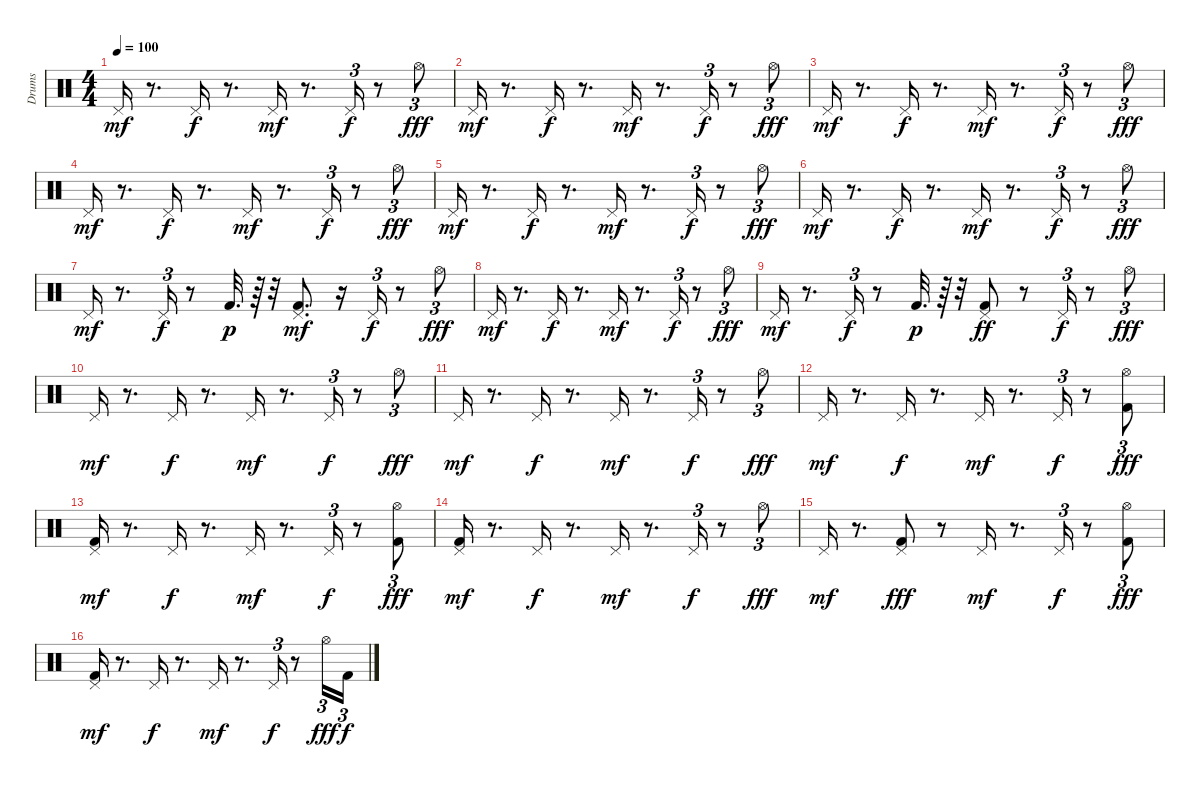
\track ("Drums" "Drums") {instrument percussion}
\staff {score}
\articulation defaults
\ts (4 4)
\tempo 100
\clef neutral
\ks c "Pedal Hi-Hat (hit)".16{dy mf}
r.8{d} "Pedal Hi-Hat (hit)".16{dy f} r.8{d} "Pedal Hi-Hat (hit)".16{dy mf} r.8{d} "Pedal Hi-Hat (hit)".16{tu (3 2) dy f} r.8 "Hi-Hat (open)".8{tu (3 2) dy fff} |
"Pedal Hi-Hat (hit)".16{dy mf} r.8{d} "Pedal Hi-Hat (hit)".16{dy f} r.8{d} "Pedal Hi-Hat (hit)".16{dy mf} r.8{d} "Pedal Hi-Hat (hit)".16{tu (3 2) dy f} r.8 "Hi-Hat (open)".8{tu (3 2) dy fff} |
"Pedal Hi-Hat (hit)".16{dy mf} r.8{d} "Pedal Hi-Hat (hit)".16{dy f} r.8{d} "Pedal Hi-Hat (hit)".16{dy mf} r.8{d} "Pedal Hi-Hat (hit)".16{tu (3 2) dy f} r.8 "Hi-Hat (open)".8{tu (3 2) dy fff} |
"Pedal Hi-Hat (hit)".16{dy mf} r.8{d} "Pedal Hi-Hat (hit)".16{dy f} r.8{d} "Pedal Hi-Hat (hit)".16{dy mf} r.8{d} "Pedal Hi-Hat (hit)".16{tu (3 2) dy f} r.8 "Hi-Hat (open)".8{tu (3 2) dy fff} |
"Pedal Hi-Hat (hit)".16{dy mf} r.8{d} "Pedal Hi-Hat (hit)".16{dy f} r.8{d} "Pedal Hi-Hat (hit)".16{dy mf} r.8{d} "Pedal Hi-Hat (hit)".16{tu (3 2) dy f} r.8 "Hi-Hat (open)".8{tu (3 2) dy fff} |
"Pedal Hi-Hat (hit)".16{dy mf} r.8{d} "Pedal Hi-Hat (hit)".16{dy f} r.8{d} "Pedal Hi-Hat (hit)".16{dy mf} r.8{d} "Pedal Hi-Hat (hit)".16{tu (3 2) dy f} r.8 "Hi-Hat (open)".8{tu (3 2) dy fff} |
"Pedal Hi-Hat (hit)".16{dy mf} r.8{d} "Pedal Hi-Hat (hit)".16{tu (3 2) dy f} r.8 "Kick (hit) 2".32{d dy p} r.64 r.32 ("Pedal Hi-Hat (hit)" "Kick (hit) 2").8{d dy mf} r.16 "Pedal Hi-Hat (hit)".16{tu (3 2) dy f} r.8 "Hi-Hat (open)".8{tu (3 2) dy fff} |
"Pedal Hi-Hat (hit)".16{dy mf} r.8{d} "Pedal Hi-Hat (hit)".16{dy f} r.8{d} "Pedal Hi-Hat (hit)".16{dy mf} r.8{d} "Pedal Hi-Hat (hit)".16{tu (3 2) dy f} r.8 "Hi-Hat (open)".8{tu (3 2) dy fff} |
"Pedal Hi-Hat (hit)".16{dy mf} r.8{d} "Pedal Hi-Hat (hit)".16{tu (3 2) dy f} r.8 "Kick (hit) 2".32{d dy p} r.64 r.32 ("Pedal Hi-Hat (hit)" "Kick (hit) 2").8{dy ff} r.8 "Pedal Hi-Hat (hit)".16{tu (3 2) dy f} r.8 "Hi-Hat (open)".8{tu (3 2) dy fff} |
"Pedal Hi-Hat (hit)".16{dy mf} r.8{d} "Pedal Hi-Hat (hit)".16{dy f} r.8{d} "Pedal Hi-Hat (hit)".16{dy mf} r.8{d} "Pedal Hi-Hat (hit)".16{tu (3 2) dy f} r.8 "Hi-Hat (open)".8{tu (3 2) dy fff} |
"Pedal Hi-Hat (hit)".16{dy mf} r.8{d} "Pedal Hi-Hat (hit)".16{dy f} r.8{d} "Pedal Hi-Hat (hit)".16{dy mf} r.8{d} "Pedal Hi-Hat (hit)".16{tu (3 2) dy f} r.8 "Hi-Hat (open)".8{tu (3 2) dy fff} |
"Pedal Hi-Hat (hit)".16{dy mf} r.8{d} "Pedal Hi-Hat (hit)".16{dy f} r.8{d} "Pedal Hi-Hat (hit)".16{dy mf} r.8{d} "Pedal Hi-Hat (hit)".16{tu (3 2) dy f} r.8 ("Hi-Hat (open)" "Kick (hit) 2").8{tu (3 2) dy fff} |
("Pedal Hi-Hat (hit)" "Kick (hit) 2").16{dy mf} r.8{d} "Pedal Hi-Hat (hit)".16{dy f} r.8{d} "Pedal Hi-Hat (hit)".16{dy mf} r.8{d} "Pedal Hi-Hat (hit)".16{tu (3 2) dy f} r.8 ("Hi-Hat (open)" "Kick (hit) 2").8{tu (3 2) dy fff} |
("Pedal Hi-Hat (hit)" "Kick (hit) 2").16{dy mf} r.8{d} "Pedal Hi-Hat (hit)".16{dy f} r.8{d} "Pedal Hi-Hat (hit)".16{dy mf} r.8{d} "Pedal Hi-Hat (hit)".16{tu (3 2) dy f} r.8 "Hi-Hat (open)".8{tu (3 2) dy fff} |
"Pedal Hi-Hat (hit)".16{dy mf} r.8{d} ("Pedal Hi-Hat (hit)" "Kick (hit) 2").8{dy fff} r.8 "Pedal Hi-Hat (hit)".16{dy mf} r.8{d} "Pedal Hi-Hat (hit)".16{tu (3 2) dy f} r.8 ("Hi-Hat (open)" "Kick (hit) 2").8{tu (3 2) dy fff} |
("Pedal Hi-Hat (hit)" "Kick (hit) 2").16{dy mf} r.8{d} "Pedal Hi-Hat (hit)".16{dy f} r.8{d} "Pedal Hi-Hat (hit)".16{dy mf} r.8{d} "Pedal Hi-Hat (hit)".16{tu (3 2) dy f} r.8 "Hi-Hat (open)".16{tu (3 2) dy fff} "Kick (hit) 2".16{tu (3 2) dy f}
